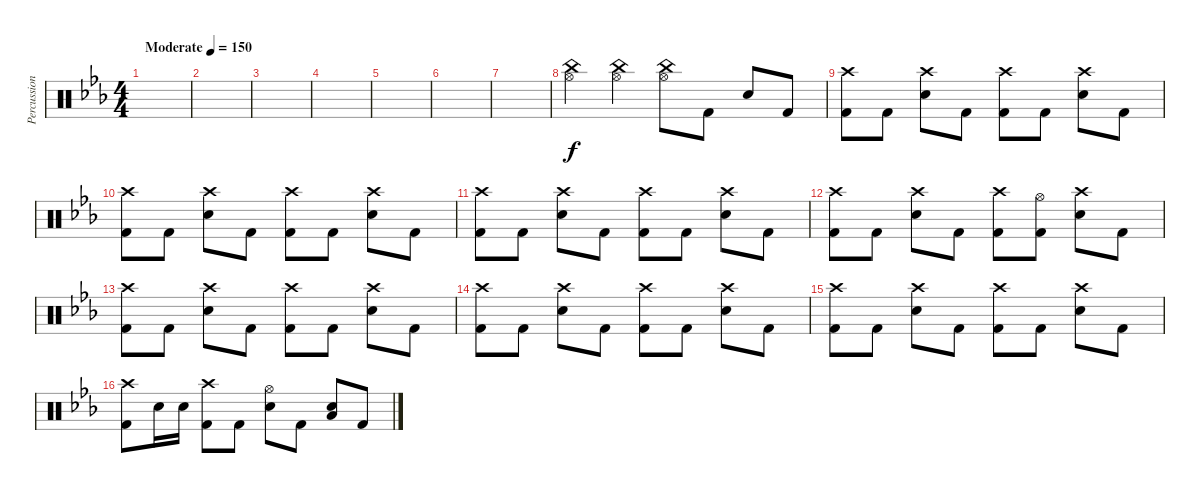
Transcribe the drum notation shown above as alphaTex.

\track ("Percussion" "Percussion") {instrument percussion}
\staff {score}
\articulation defaults
\ts (4 4)
\tempo (150 "Moderate")
\clef neutral
\ks cminor
|
|
|
|
|
|
|
("China (hit)" "Hi-Hat (open)").4 ("China (hit)" "Hi-Hat (open)").4 ("China (hit)" "Hi-Hat (open)").8 "Kick (hit) 2".8 "Electric Snare (hit)".8 "Kick (hit) 2".8 |
("Crash high (hit)" "Kick (hit) 2").8 "Kick (hit) 2".8 ("Crash high (hit)" "Electric Snare (hit)").8 "Kick (hit) 2".8 ("Crash high (hit)" "Kick (hit) 2").8 "Kick (hit) 2".8 ("Crash high (hit)" "Electric Snare (hit)").8 "Kick (hit) 2".8 |
("Crash high (hit)" "Kick (hit) 2").8 "Kick (hit) 2".8 ("Crash high (hit)" "Electric Snare (hit)").8 "Kick (hit) 2".8 ("Crash high (hit)" "Kick (hit) 2").8 "Kick (hit) 2".8 ("Crash high (hit)" "Electric Snare (hit)").8 "Kick (hit) 2".8 |
("Crash high (hit)" "Kick (hit) 2").8 "Kick (hit) 2".8 ("Crash high (hit)" "Electric Snare (hit)").8 "Kick (hit) 2".8 ("Crash high (hit)" "Kick (hit) 2").8 "Kick (hit) 2".8 ("Crash high (hit)" "Electric Snare (hit)").8 "Kick (hit) 2".8 |
("Crash high (hit)" "Kick (hit) 2").8 "Kick (hit) 2".8 ("Crash high (hit)" "Electric Snare (hit)").8 "Kick (hit) 2".8 ("Crash high (hit)" "Kick (hit) 2").8 ("Hi-Hat (open)" "Kick (hit) 2").8 ("Crash high (hit)" "Electric Snare (hit)").8 "Kick (hit) 2".8 |
("Crash high (hit)" "Kick (hit) 2").8 "Kick (hit) 2".8 ("Crash high (hit)" "Electric Snare (hit)").8 "Kick (hit) 2".8 ("Crash high (hit)" "Kick (hit) 2").8 "Kick (hit) 2".8 ("Crash high (hit)" "Electric Snare (hit)").8 "Kick (hit) 2".8 |
("Crash high (hit)" "Kick (hit) 2").8 "Kick (hit) 2".8 ("Crash high (hit)" "Electric Snare (hit)").8 "Kick (hit) 2".8 ("Crash high (hit)" "Kick (hit) 2").8 "Kick (hit) 2".8 ("Crash high (hit)" "Electric Snare (hit)").8 "Kick (hit) 2".8 |
("Crash high (hit)" "Kick (hit) 2").8 "Kick (hit) 2".8 ("Crash high (hit)" "Electric Snare (hit)").8 "Kick (hit) 2".8 ("Crash high (hit)" "Kick (hit) 2").8 "Kick (hit) 2".8 ("Crash high (hit)" "Electric Snare (hit)").8 "Kick (hit) 2".8 |
("Crash high (hit)" "Kick (hit) 2").8 "Electric Snare (hit)".16 "Electric Snare (hit)".16 ("Crash high (hit)" "Kick (hit) 2").8 "Kick (hit) 2".8 ("Hi-Hat (open)" "Electric Snare (hit)").8 "Kick (hit) 2".8 ("Low Floor Tom (hit)" "Electric Snare (hit)").8 "Kick (hit) 2".8
